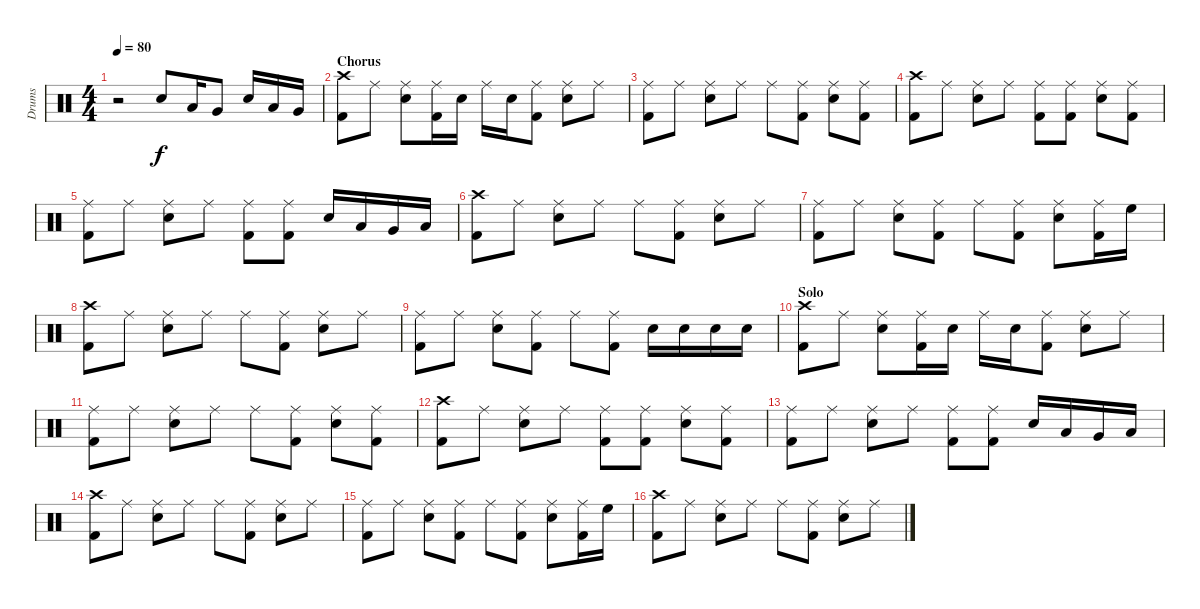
\track ("Drums" "Drums") {instrument percussion}
\staff {score}
\articulation defaults
\ts (4 4)
\tempo 80
\clef neutral
\ks c
r.2{dy f} "Electric Snare (hit)".8 "Low Tom (hit)".16 "Very Low Tom (hit)".8 "Electric Snare (hit)".16 "Low Tom (hit)".16 "Very Low Tom (hit)".16 |
\section ("" "Chorus")
("Crash high (hit)" "Kick (hit) 2").8 "Ride (middle)".8 ("Ride (middle)" "Electric Snare (hit)").8 ("Ride (middle)" "Kick (hit) 2").16 "Electric Snare (hit)".16 "Ride (middle)".16 "Electric Snare (hit)".16 ("Ride (middle)" "Kick (hit) 2").8 ("Ride (middle)" "Electric Snare (hit)").8 "Ride (middle)".8 |
("Ride (middle)" "Kick (hit) 2").8 "Ride (middle)".8 ("Ride (middle)" "Electric Snare (hit)").8 "Ride (middle)".8 "Ride (middle)".8 ("Ride (middle)" "Kick (hit) 2").8 ("Ride (middle)" "Electric Snare (hit)").8 ("Ride (middle)" "Kick (hit) 2").8 |
("Crash high (hit)" "Kick (hit) 2").8 "Ride (middle)".8 ("Ride (middle)" "Electric Snare (hit)").8 "Ride (middle)".8 ("Ride (middle)" "Kick (hit) 2").8 ("Ride (middle)" "Kick (hit) 2").8 ("Ride (middle)" "Electric Snare (hit)").8 ("Ride (middle)" "Kick (hit) 2").8 |
("Ride (middle)" "Kick (hit) 2").8 "Ride (middle)".8 ("Ride (middle)" "Electric Snare (hit)").8 "Ride (middle)".8 ("Ride (middle)" "Kick (hit) 2").8 ("Ride (middle)" "Kick (hit) 2").8 "Electric Snare (hit)".16 "Low Tom (hit)".16 "Very Low Tom (hit)".16 "Low Floor Tom (hit)".16 |
("Crash high (hit)" "Kick (hit) 2").8 "Ride (middle)".8 ("Ride (middle)" "Electric Snare (hit)").8 "Ride (middle)".8 "Ride (middle)".8 ("Ride (middle)" "Kick (hit) 2").8 ("Ride (middle)" "Electric Snare (hit)").8 "Ride (middle)".8 |
("Ride (middle)" "Kick (hit) 2").8 "Ride (middle)".8 ("Ride (middle)" "Electric Snare (hit)").8 ("Ride (middle)" "Kick (hit) 2").8 "Ride (middle)".8 ("Ride (middle)" "Kick (hit) 2").8 ("Ride (middle)" "Electric Snare (hit)").8 ("Ride (middle)" "Kick (hit) 2").16 "High Floor Tom (hit)".16 |
("Crash high (hit)" "Kick (hit) 2").8 "Ride (middle)".8 ("Ride (middle)" "Electric Snare (hit)").8 "Ride (middle)".8 "Ride (middle)".8 ("Ride (middle)" "Kick (hit) 2").8 ("Ride (middle)" "Electric Snare (hit)").8 "Ride (middle)".8 |
("Ride (middle)" "Kick (hit) 2").8 "Ride (middle)".8 ("Ride (middle)" "Electric Snare (hit)").8 ("Ride (middle)" "Kick (hit) 2").8 "Ride (middle)".8 ("Ride (middle)" "Kick (hit) 2").8 "Electric Snare (hit)".16 "Electric Snare (hit)".16 "Electric Snare (hit)".16 "Electric Snare (hit)".16 |
\section ("" "Solo")
("Crash high (hit)" "Kick (hit) 2").8 "Ride (middle)".8 ("Ride (middle)" "Electric Snare (hit)").8 ("Ride (middle)" "Kick (hit) 2").16 "Electric Snare (hit)".16 "Ride (middle)".16 "Electric Snare (hit)".16 ("Ride (middle)" "Kick (hit) 2").8 ("Ride (middle)" "Electric Snare (hit)").8 "Ride (middle)".8 |
("Ride (middle)" "Kick (hit) 2").8 "Ride (middle)".8 ("Ride (middle)" "Electric Snare (hit)").8 "Ride (middle)".8 "Ride (middle)".8 ("Ride (middle)" "Kick (hit) 2").8 ("Ride (middle)" "Electric Snare (hit)").8 ("Ride (middle)" "Kick (hit) 2").8 |
("Crash high (hit)" "Kick (hit) 2").8 "Ride (middle)".8 ("Ride (middle)" "Electric Snare (hit)").8 "Ride (middle)".8 ("Ride (middle)" "Kick (hit) 2").8 ("Ride (middle)" "Kick (hit) 2").8 ("Ride (middle)" "Electric Snare (hit)").8 ("Ride (middle)" "Kick (hit) 2").8 |
("Ride (middle)" "Kick (hit) 2").8 "Ride (middle)".8 ("Ride (middle)" "Electric Snare (hit)").8 "Ride (middle)".8 ("Ride (middle)" "Kick (hit) 2").8 ("Ride (middle)" "Kick (hit) 2").8 "Electric Snare (hit)".16 "Low Tom (hit)".16 "Very Low Tom (hit)".16 "Low Floor Tom (hit)".16 |
("Crash high (hit)" "Kick (hit) 2").8 "Ride (middle)".8 ("Ride (middle)" "Electric Snare (hit)").8 "Ride (middle)".8 "Ride (middle)".8 ("Ride (middle)" "Kick (hit) 2").8 ("Ride (middle)" "Electric Snare (hit)").8 "Ride (middle)".8 |
("Ride (middle)" "Kick (hit) 2").8 "Ride (middle)".8 ("Ride (middle)" "Electric Snare (hit)").8 ("Ride (middle)" "Kick (hit) 2").8 "Ride (middle)".8 ("Ride (middle)" "Kick (hit) 2").8 ("Ride (middle)" "Electric Snare (hit)").8 ("Ride (middle)" "Kick (hit) 2").16 "High Floor Tom (hit)".16 |
("Crash high (hit)" "Kick (hit) 2").8 "Ride (middle)".8 ("Ride (middle)" "Electric Snare (hit)").8 "Ride (middle)".8 "Ride (middle)".8 ("Ride (middle)" "Kick (hit) 2").8 ("Ride (middle)" "Electric Snare (hit)").8 "Ride (middle)".8
